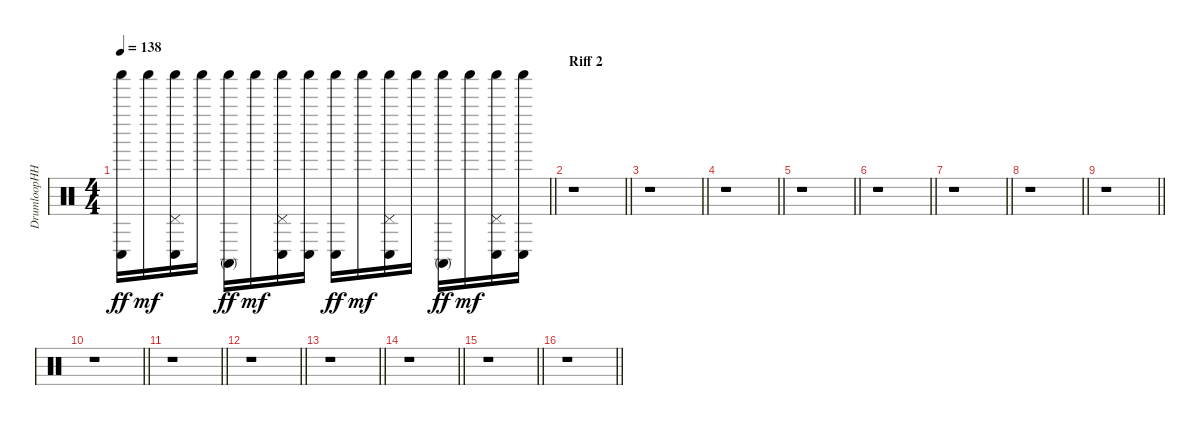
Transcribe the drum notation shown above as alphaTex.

\track ("DrumloopHH" "DrumloopHH") {instrument percussion}
\staff {score}
\articulation defaults
\ts (4 4)
\tempo 138
\clef neutral
\barLineRight lightlight
\ks c
("Conga low (hit)" "Shaker (hit)").16{dy ff} "Shaker (hit)".16{dy mf} ("Conga low (hit)" "Pedal Hi-Hat (hit)" "Shaker (hit)").16 "Shaker (hit)".16 ("Conga high (mute)" "Shaker (hit)").16{dy ff} "Shaker (hit)".16{dy mf} ("Conga low (hit)" "Pedal Hi-Hat (hit)" "Shaker (hit)").16 ("Conga low (hit)" "Shaker (hit)").16 ("Conga low (hit)" "Shaker (hit)").16{dy ff} "Shaker (hit)".16{dy mf} ("Conga low (hit)" "Pedal Hi-Hat (hit)" "Shaker (hit)").16 "Shaker (hit)".16 ("Conga high (mute)" "Shaker (hit)").16{dy ff} "Shaker (hit)".16{dy mf} ("Conga low (hit)" "Pedal Hi-Hat (hit)" "Shaker (hit)").16 ("Conga low (hit)" "Shaker (hit)").16 |
\section ("" "Riff 2")
\barLineRight lightlight
r.1 |
\barLineRight lightlight
r.1 |
\barLineRight lightlight
r.1 |
\barLineRight lightlight
r.1 |
\barLineRight lightlight
r.1 |
\barLineRight lightlight
r.1 |
\barLineRight lightlight
r.1 |
\barLineRight lightlight
r.1 |
\barLineRight lightlight
r.1 |
\barLineRight lightlight
r.1 |
\barLineRight lightlight
r.1 |
\barLineRight lightlight
r.1 |
\barLineRight lightlight
r.1 |
\barLineRight lightlight
r.1 |
\barLineRight lightlight
r.1
